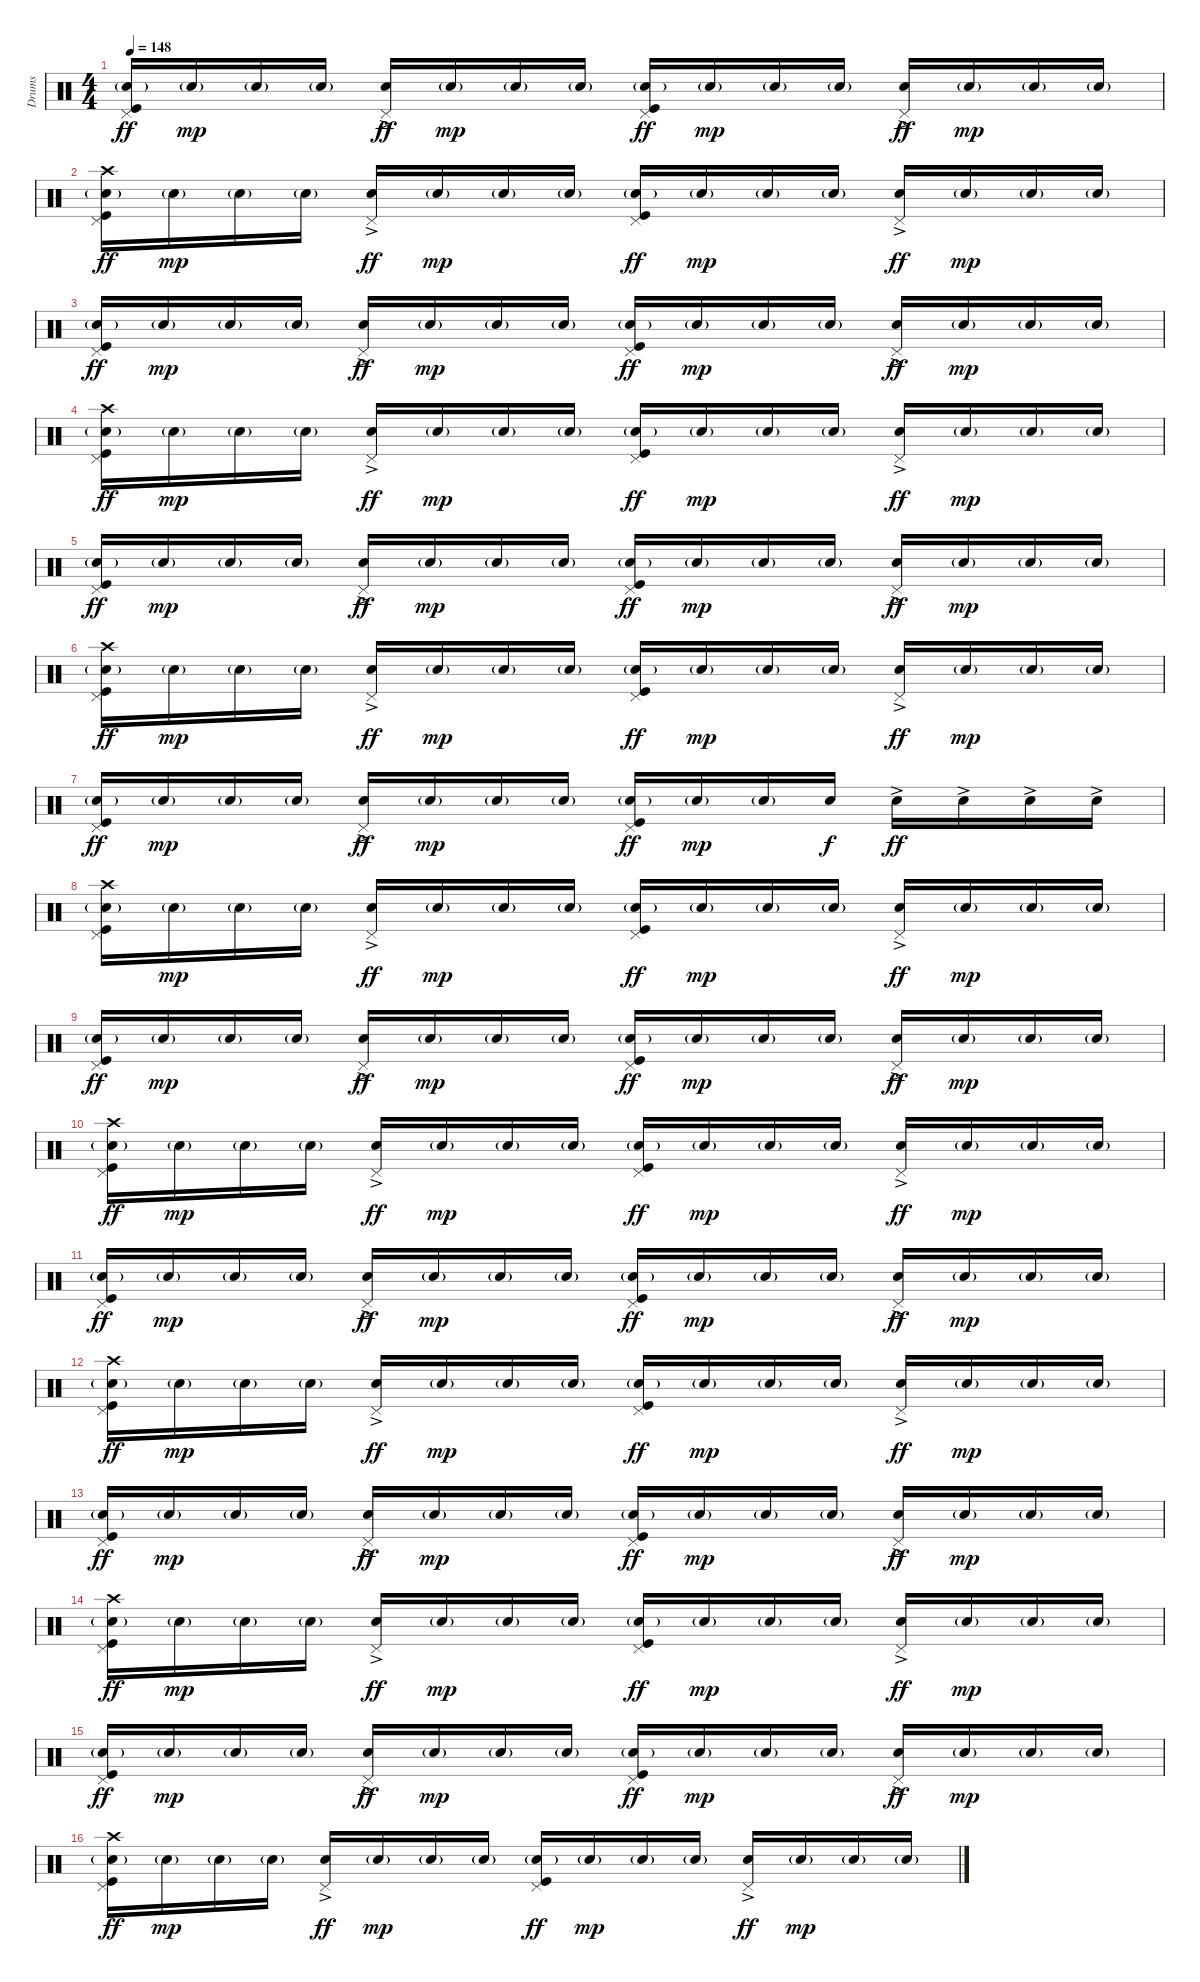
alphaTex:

\track ("Drums" "Drums") {instrument percussion}
\staff {score}
\articulation defaults
\ts (4 4)
\tempo 148
\clef neutral
\ks c
("Pedal Hi-Hat (hit)" "Snare (hit) 2"{g} "Kick (hit)").16{dy ff} "Snare (hit) 2"{g}.16{dy mp} "Snare (hit) 2"{g}.16 "Snare (hit) 2"{g}.16 ("Pedal Hi-Hat (hit)" "Electric Snare (hit)"{ac}).16{dy ff} "Snare (hit) 2"{g}.16{dy mp} "Snare (hit) 2"{g}.16 "Snare (hit) 2"{g}.16 ("Pedal Hi-Hat (hit)" "Snare (hit) 2"{g} "Kick (hit)").16{dy ff} "Snare (hit) 2"{g}.16{dy mp} "Snare (hit) 2"{g}.16 "Snare (hit) 2"{g}.16 ("Pedal Hi-Hat (hit)" "Electric Snare (hit)"{ac}).16{dy ff} "Snare (hit) 2"{g}.16{dy mp} "Snare (hit) 2"{g}.16 "Snare (hit) 2"{g}.16 |
("Crash high (hit)" "Pedal Hi-Hat (hit)" "Snare (hit) 2"{g} "Kick (hit)").16{dy ff} "Snare (hit) 2"{g}.16{dy mp} "Snare (hit) 2"{g}.16 "Snare (hit) 2"{g}.16 ("Pedal Hi-Hat (hit)" "Electric Snare (hit)"{ac}).16{dy ff} "Snare (hit) 2"{g}.16{dy mp} "Snare (hit) 2"{g}.16 "Snare (hit) 2"{g}.16 ("Pedal Hi-Hat (hit)" "Snare (hit) 2"{g} "Kick (hit)").16{dy ff} "Snare (hit) 2"{g}.16{dy mp} "Snare (hit) 2"{g}.16 "Snare (hit) 2"{g}.16 ("Pedal Hi-Hat (hit)" "Electric Snare (hit)"{ac}).16{dy ff} "Snare (hit) 2"{g}.16{dy mp} "Snare (hit) 2"{g}.16 "Snare (hit) 2"{g}.16 |
("Pedal Hi-Hat (hit)" "Snare (hit) 2"{g} "Kick (hit)").16{dy ff} "Snare (hit) 2"{g}.16{dy mp} "Snare (hit) 2"{g}.16 "Snare (hit) 2"{g}.16 ("Pedal Hi-Hat (hit)" "Electric Snare (hit)"{ac}).16{dy ff} "Snare (hit) 2"{g}.16{dy mp} "Snare (hit) 2"{g}.16 "Snare (hit) 2"{g}.16 ("Pedal Hi-Hat (hit)" "Snare (hit) 2"{g} "Kick (hit)").16{dy ff} "Snare (hit) 2"{g}.16{dy mp} "Snare (hit) 2"{g}.16 "Snare (hit) 2"{g}.16 ("Pedal Hi-Hat (hit)" "Electric Snare (hit)"{ac}).16{dy ff} "Snare (hit) 2"{g}.16{dy mp} "Snare (hit) 2"{g}.16 "Snare (hit) 2"{g}.16 |
("Crash high (hit)" "Pedal Hi-Hat (hit)" "Snare (hit) 2"{g} "Kick (hit)").16{dy ff} "Snare (hit) 2"{g}.16{dy mp} "Snare (hit) 2"{g}.16 "Snare (hit) 2"{g}.16 ("Pedal Hi-Hat (hit)" "Electric Snare (hit)"{ac}).16{dy ff} "Snare (hit) 2"{g}.16{dy mp} "Snare (hit) 2"{g}.16 "Snare (hit) 2"{g}.16 ("Pedal Hi-Hat (hit)" "Snare (hit) 2"{g} "Kick (hit)").16{dy ff} "Snare (hit) 2"{g}.16{dy mp} "Snare (hit) 2"{g}.16 "Snare (hit) 2"{g}.16 ("Pedal Hi-Hat (hit)" "Electric Snare (hit)"{ac}).16{dy ff} "Snare (hit) 2"{g}.16{dy mp} "Snare (hit) 2"{g}.16 "Snare (hit) 2"{g}.16 |
("Pedal Hi-Hat (hit)" "Snare (hit) 2"{g} "Kick (hit)").16{dy ff} "Snare (hit) 2"{g}.16{dy mp} "Snare (hit) 2"{g}.16 "Snare (hit) 2"{g}.16 ("Pedal Hi-Hat (hit)" "Electric Snare (hit)"{ac}).16{dy ff} "Snare (hit) 2"{g}.16{dy mp} "Snare (hit) 2"{g}.16 "Snare (hit) 2"{g}.16 ("Pedal Hi-Hat (hit)" "Snare (hit) 2"{g} "Kick (hit)").16{dy ff} "Snare (hit) 2"{g}.16{dy mp} "Snare (hit) 2"{g}.16 "Snare (hit) 2"{g}.16 ("Pedal Hi-Hat (hit)" "Electric Snare (hit)"{ac}).16{dy ff} "Snare (hit) 2"{g}.16{dy mp} "Snare (hit) 2"{g}.16 "Snare (hit) 2"{g}.16 |
("Crash high (hit)" "Pedal Hi-Hat (hit)" "Snare (hit) 2"{g} "Kick (hit)").16{dy ff} "Snare (hit) 2"{g}.16{dy mp} "Snare (hit) 2"{g}.16 "Snare (hit) 2"{g}.16 ("Pedal Hi-Hat (hit)" "Electric Snare (hit)"{ac}).16{dy ff} "Snare (hit) 2"{g}.16{dy mp} "Snare (hit) 2"{g}.16 "Snare (hit) 2"{g}.16 ("Pedal Hi-Hat (hit)" "Snare (hit) 2"{g} "Kick (hit)").16{dy ff} "Snare (hit) 2"{g}.16{dy mp} "Snare (hit) 2"{g}.16 "Snare (hit) 2"{g}.16 ("Pedal Hi-Hat (hit)" "Electric Snare (hit)"{ac}).16{dy ff} "Snare (hit) 2"{g}.16{dy mp} "Snare (hit) 2"{g}.16 "Snare (hit) 2"{g}.16 |
("Pedal Hi-Hat (hit)" "Snare (hit) 2"{g} "Kick (hit)").16{dy ff} "Snare (hit) 2"{g}.16{dy mp} "Snare (hit) 2"{g}.16 "Snare (hit) 2"{g}.16 ("Pedal Hi-Hat (hit)" "Electric Snare (hit)"{ac}).16{dy ff} "Snare (hit) 2"{g}.16{dy mp} "Snare (hit) 2"{g}.16 "Snare (hit) 2"{g}.16 ("Pedal Hi-Hat (hit)" "Snare (hit) 2"{g} "Kick (hit)").16{dy ff} "Snare (hit) 2"{g}.16{dy mp} "Snare (hit) 2"{g}.16 "Electric Snare (hit)".16{dy f} "Electric Snare (hit)"{ac}.16{dy ff} "Electric Snare (hit)"{ac}.16 "Electric Snare (hit)"{ac}.16 "Electric Snare (hit)"{ac}.16 |
("Crash high (hit)" "Pedal Hi-Hat (hit)" "Snare (hit) 2"{g} "Kick (hit)").16 "Snare (hit) 2"{g}.16{dy mp} "Snare (hit) 2"{g}.16 "Snare (hit) 2"{g}.16 ("Pedal Hi-Hat (hit)" "Electric Snare (hit)"{ac}).16{dy ff} "Snare (hit) 2"{g}.16{dy mp} "Snare (hit) 2"{g}.16 "Snare (hit) 2"{g}.16 ("Pedal Hi-Hat (hit)" "Snare (hit) 2"{g} "Kick (hit)").16{dy ff} "Snare (hit) 2"{g}.16{dy mp} "Snare (hit) 2"{g}.16 "Snare (hit) 2"{g}.16 ("Pedal Hi-Hat (hit)" "Electric Snare (hit)"{ac}).16{dy ff} "Snare (hit) 2"{g}.16{dy mp} "Snare (hit) 2"{g}.16 "Snare (hit) 2"{g}.16 |
("Pedal Hi-Hat (hit)" "Snare (hit) 2"{g} "Kick (hit)").16{dy ff} "Snare (hit) 2"{g}.16{dy mp} "Snare (hit) 2"{g}.16 "Snare (hit) 2"{g}.16 ("Pedal Hi-Hat (hit)" "Electric Snare (hit)"{ac}).16{dy ff} "Snare (hit) 2"{g}.16{dy mp} "Snare (hit) 2"{g}.16 "Snare (hit) 2"{g}.16 ("Pedal Hi-Hat (hit)" "Snare (hit) 2"{g} "Kick (hit)").16{dy ff} "Snare (hit) 2"{g}.16{dy mp} "Snare (hit) 2"{g}.16 "Snare (hit) 2"{g}.16 ("Pedal Hi-Hat (hit)" "Electric Snare (hit)"{ac}).16{dy ff} "Snare (hit) 2"{g}.16{dy mp} "Snare (hit) 2"{g}.16 "Snare (hit) 2"{g}.16 |
("Crash high (hit)" "Pedal Hi-Hat (hit)" "Snare (hit) 2"{g} "Kick (hit)").16{dy ff} "Snare (hit) 2"{g}.16{dy mp} "Snare (hit) 2"{g}.16 "Snare (hit) 2"{g}.16 ("Pedal Hi-Hat (hit)" "Electric Snare (hit)"{ac}).16{dy ff} "Snare (hit) 2"{g}.16{dy mp} "Snare (hit) 2"{g}.16 "Snare (hit) 2"{g}.16 ("Pedal Hi-Hat (hit)" "Snare (hit) 2"{g} "Kick (hit)").16{dy ff} "Snare (hit) 2"{g}.16{dy mp} "Snare (hit) 2"{g}.16 "Snare (hit) 2"{g}.16 ("Pedal Hi-Hat (hit)" "Electric Snare (hit)"{ac}).16{dy ff} "Snare (hit) 2"{g}.16{dy mp} "Snare (hit) 2"{g}.16 "Snare (hit) 2"{g}.16 |
("Pedal Hi-Hat (hit)" "Snare (hit) 2"{g} "Kick (hit)").16{dy ff} "Snare (hit) 2"{g}.16{dy mp} "Snare (hit) 2"{g}.16 "Snare (hit) 2"{g}.16 ("Pedal Hi-Hat (hit)" "Electric Snare (hit)"{ac}).16{dy ff} "Snare (hit) 2"{g}.16{dy mp} "Snare (hit) 2"{g}.16 "Snare (hit) 2"{g}.16 ("Pedal Hi-Hat (hit)" "Snare (hit) 2"{g} "Kick (hit)").16{dy ff} "Snare (hit) 2"{g}.16{dy mp} "Snare (hit) 2"{g}.16 "Snare (hit) 2"{g}.16 ("Pedal Hi-Hat (hit)" "Electric Snare (hit)"{ac}).16{dy ff} "Snare (hit) 2"{g}.16{dy mp} "Snare (hit) 2"{g}.16 "Snare (hit) 2"{g}.16 |
("Crash high (hit)" "Pedal Hi-Hat (hit)" "Snare (hit) 2"{g} "Kick (hit)").16{dy ff} "Snare (hit) 2"{g}.16{dy mp} "Snare (hit) 2"{g}.16 "Snare (hit) 2"{g}.16 ("Pedal Hi-Hat (hit)" "Electric Snare (hit)"{ac}).16{dy ff} "Snare (hit) 2"{g}.16{dy mp} "Snare (hit) 2"{g}.16 "Snare (hit) 2"{g}.16 ("Pedal Hi-Hat (hit)" "Snare (hit) 2"{g} "Kick (hit)").16{dy ff} "Snare (hit) 2"{g}.16{dy mp} "Snare (hit) 2"{g}.16 "Snare (hit) 2"{g}.16 ("Pedal Hi-Hat (hit)" "Electric Snare (hit)"{ac}).16{dy ff} "Snare (hit) 2"{g}.16{dy mp} "Snare (hit) 2"{g}.16 "Snare (hit) 2"{g}.16 |
("Pedal Hi-Hat (hit)" "Snare (hit) 2"{g} "Kick (hit)").16{dy ff} "Snare (hit) 2"{g}.16{dy mp} "Snare (hit) 2"{g}.16 "Snare (hit) 2"{g}.16 ("Pedal Hi-Hat (hit)" "Electric Snare (hit)"{ac}).16{dy ff} "Snare (hit) 2"{g}.16{dy mp} "Snare (hit) 2"{g}.16 "Snare (hit) 2"{g}.16 ("Pedal Hi-Hat (hit)" "Snare (hit) 2"{g} "Kick (hit)").16{dy ff} "Snare (hit) 2"{g}.16{dy mp} "Snare (hit) 2"{g}.16 "Snare (hit) 2"{g}.16 ("Pedal Hi-Hat (hit)" "Electric Snare (hit)"{ac}).16{dy ff} "Snare (hit) 2"{g}.16{dy mp} "Snare (hit) 2"{g}.16 "Snare (hit) 2"{g}.16 |
("Crash high (hit)" "Pedal Hi-Hat (hit)" "Snare (hit) 2"{g} "Kick (hit)").16{dy ff} "Snare (hit) 2"{g}.16{dy mp} "Snare (hit) 2"{g}.16 "Snare (hit) 2"{g}.16 ("Pedal Hi-Hat (hit)" "Electric Snare (hit)"{ac}).16{dy ff} "Snare (hit) 2"{g}.16{dy mp} "Snare (hit) 2"{g}.16 "Snare (hit) 2"{g}.16 ("Pedal Hi-Hat (hit)" "Snare (hit) 2"{g} "Kick (hit)").16{dy ff} "Snare (hit) 2"{g}.16{dy mp} "Snare (hit) 2"{g}.16 "Snare (hit) 2"{g}.16 ("Pedal Hi-Hat (hit)" "Electric Snare (hit)"{ac}).16{dy ff} "Snare (hit) 2"{g}.16{dy mp} "Snare (hit) 2"{g}.16 "Snare (hit) 2"{g}.16 |
("Pedal Hi-Hat (hit)" "Snare (hit) 2"{g} "Kick (hit)").16{dy ff} "Snare (hit) 2"{g}.16{dy mp} "Snare (hit) 2"{g}.16 "Snare (hit) 2"{g}.16 ("Pedal Hi-Hat (hit)" "Electric Snare (hit)"{ac}).16{dy ff} "Snare (hit) 2"{g}.16{dy mp} "Snare (hit) 2"{g}.16 "Snare (hit) 2"{g}.16 ("Pedal Hi-Hat (hit)" "Snare (hit) 2"{g} "Kick (hit)").16{dy ff} "Snare (hit) 2"{g}.16{dy mp} "Snare (hit) 2"{g}.16 "Snare (hit) 2"{g}.16 ("Pedal Hi-Hat (hit)" "Electric Snare (hit)"{ac}).16{dy ff} "Snare (hit) 2"{g}.16{dy mp} "Snare (hit) 2"{g}.16 "Snare (hit) 2"{g}.16 |
("Crash high (hit)" "Pedal Hi-Hat (hit)" "Snare (hit) 2"{g} "Kick (hit)").16{dy ff} "Snare (hit) 2"{g}.16{dy mp} "Snare (hit) 2"{g}.16 "Snare (hit) 2"{g}.16 ("Pedal Hi-Hat (hit)" "Electric Snare (hit)"{ac}).16{dy ff} "Snare (hit) 2"{g}.16{dy mp} "Snare (hit) 2"{g}.16 "Snare (hit) 2"{g}.16 ("Pedal Hi-Hat (hit)" "Snare (hit) 2"{g} "Kick (hit)").16{dy ff} "Snare (hit) 2"{g}.16{dy mp} "Snare (hit) 2"{g}.16 "Snare (hit) 2"{g}.16 ("Pedal Hi-Hat (hit)" "Electric Snare (hit)"{ac}).16{dy ff} "Snare (hit) 2"{g}.16{dy mp} "Snare (hit) 2"{g}.16 "Snare (hit) 2"{g}.16
